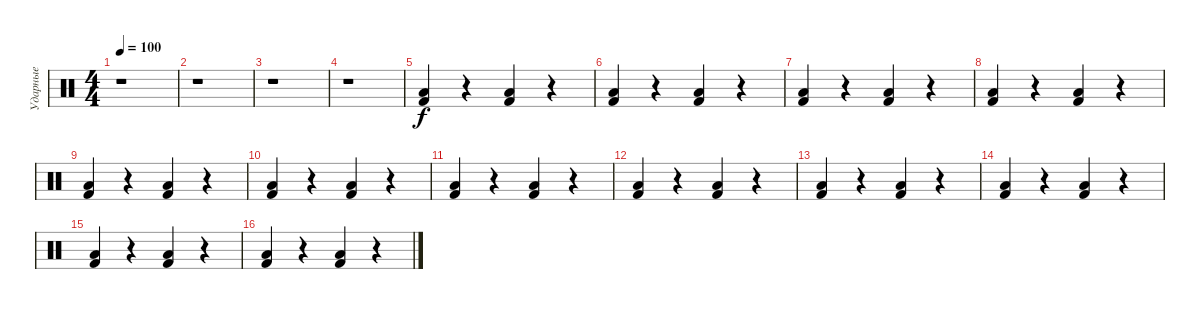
\track ("Ударные" "Ударные") {instrument percussion}
\staff {score}
\articulation defaults
\ts (4 4)
\tempo 100
\clef neutral
\ks c
r.1{dy f} |
r.1 |
r.1 |
r.1 |
("Kick (hit) 2" "Low Floor Tom (hit)").4 r.4 ("Kick (hit) 2" "Low Floor Tom (hit)").4 r.4 |
("Kick (hit) 2" "Low Floor Tom (hit)").4 r.4 ("Kick (hit) 2" "Low Floor Tom (hit)").4 r.4 |
("Kick (hit) 2" "Low Floor Tom (hit)").4 r.4 ("Kick (hit) 2" "Low Floor Tom (hit)").4 r.4 |
("Kick (hit) 2" "Low Floor Tom (hit)").4 r.4 ("Kick (hit) 2" "Low Floor Tom (hit)").4 r.4 |
("Kick (hit) 2" "Low Floor Tom (hit)").4 r.4 ("Kick (hit) 2" "Low Floor Tom (hit)").4 r.4 |
("Kick (hit) 2" "Low Floor Tom (hit)").4 r.4 ("Kick (hit) 2" "Low Floor Tom (hit)").4 r.4 |
("Kick (hit) 2" "Low Floor Tom (hit)").4 r.4 ("Kick (hit) 2" "Low Floor Tom (hit)").4 r.4 |
("Kick (hit) 2" "Low Floor Tom (hit)").4 r.4 ("Kick (hit) 2" "Low Floor Tom (hit)").4 r.4 |
("Kick (hit) 2" "Low Floor Tom (hit)").4 r.4 ("Kick (hit) 2" "Low Floor Tom (hit)").4 r.4 |
("Kick (hit) 2" "Low Floor Tom (hit)").4 r.4 ("Kick (hit) 2" "Low Floor Tom (hit)").4 r.4 |
("Kick (hit) 2" "Low Floor Tom (hit)").4 r.4 ("Kick (hit) 2" "Low Floor Tom (hit)").4 r.4 |
("Kick (hit) 2" "Low Floor Tom (hit)").4 r.4 ("Kick (hit) 2" "Low Floor Tom (hit)").4 r.4
